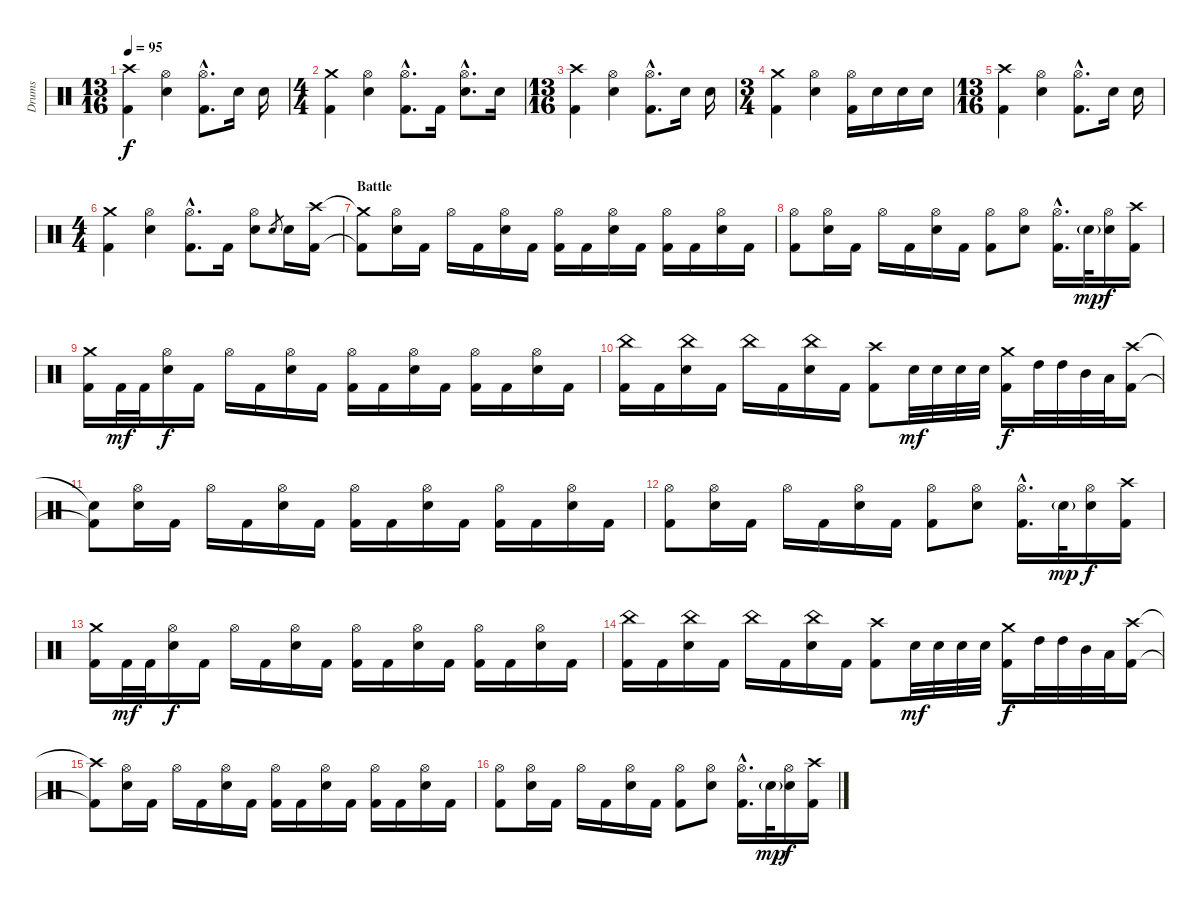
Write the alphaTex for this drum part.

\track ("Drums" "Drums") {instrument percussion}
\staff {score}
\articulation defaults
\ts (13 16)
\tempo 95
\clef neutral
\ks c
("Crash high (hit)" "Kick (hit) 2").4{dy f} ("Hi-Hat (open)" "Snare (hit) 2").4 ("Hi-Hat (open)"{hac} "Kick (hit) 2"{hac}).8{d} "Snare (hit) 2".16 "Snare (hit) 2".16 |
\ts (4 4)
("Crash medium (hit)" "Kick (hit) 2").4 ("Hi-Hat (open)" "Snare (hit) 2").4 ("Hi-Hat (open)"{hac} "Kick (hit) 2"{hac}).8{d} "Kick (hit) 2".16 ("Hi-Hat (open)"{hac} "Snare (hit) 2"{hac}).8{d} "Snare (hit) 2".16 |
\ts (13 16)
("Crash high (hit)" "Kick (hit) 2").4 ("Hi-Hat (open)" "Snare (hit) 2").4 ("Hi-Hat (open)"{hac} "Kick (hit) 2"{hac}).8{d} "Snare (hit) 2".16 "Snare (hit) 2".16 |
\ts (3 4)
("Crash medium (hit)" "Kick (hit) 2").4 ("Hi-Hat (open)" "Snare (hit) 2").4 ("Hi-Hat (open)" "Kick (hit) 2").16 "Snare (hit) 2".16 "Snare (hit) 2".16 "Snare (hit) 2".16 |
\ts (13 16)
("Crash high (hit)" "Kick (hit) 2").4 ("Hi-Hat (open)" "Snare (hit) 2").4 ("Hi-Hat (open)"{hac} "Kick (hit) 2"{hac}).8{d} "Snare (hit) 2".16 "Snare (hit) 2".16 |
\ts (4 4)
("Crash medium (hit)" "Kick (hit) 2").4 ("Hi-Hat (open)" "Snare (hit) 2").4 ("Hi-Hat (open)"{hac} "Kick (hit) 2"{hac}).8{d} "Kick (hit) 2".16 ("Hi-Hat (open)" "Snare (hit) 2").8 "Snare (hit) 2".8{gr} "Snare (hit) 2".16 ("Crash high (hit)" "Kick (hit) 2").16{volume 13} |
\section ("" "Battle")
("Crash medium (hit)"{t} "Kick (hit) 2"{t}).8 ("Hi-Hat (open)" "Snare (hit) 2").16 "Kick (hit) 2".16 "Hi-Hat (open)".16 "Kick (hit) 2".16 ("Hi-Hat (open)" "Snare (hit) 2").16 "Kick (hit) 2".16 ("Hi-Hat (open)" "Kick (hit) 2").16 "Kick (hit) 2".16 ("Hi-Hat (open)" "Snare (hit) 2").16 "Kick (hit) 2".16 ("Hi-Hat (open)" "Kick (hit) 2").16 "Kick (hit) 2".16 ("Hi-Hat (open)" "Snare (hit) 2").16 "Kick (hit) 2".16 |
("Hi-Hat (open)" "Kick (hit) 2").8 ("Hi-Hat (open)" "Snare (hit) 2").16 "Kick (hit) 2".16 "Hi-Hat (open)".16 "Kick (hit) 2".16 ("Hi-Hat (open)" "Snare (hit) 2").16 "Kick (hit) 2".16 ("Hi-Hat (open)" "Kick (hit) 2").8 ("Hi-Hat (open)" "Snare (hit) 2").8 ("Hi-Hat (open)"{hac} "Kick (hit) 2"{hac}).16{d} "Snare (hit) 2"{g}.32{dy mp} ("Hi-Hat (open)" "Snare (hit) 2").16{dy f} ("Crash high (hit)" "Kick (hit) 2").16 |
("Crash medium (hit)" "Kick (hit) 2").16 "Kick (hit) 2".32{dy mf} "Kick (hit) 2".32 ("Hi-Hat (open)" "Snare (hit) 2").16{dy f} "Kick (hit) 2".16 "Hi-Hat (open)".16 "Kick (hit) 2".16 ("Hi-Hat (open)" "Snare (hit) 2").16 "Kick (hit) 2".16 ("Hi-Hat (open)" "Kick (hit) 2").16 "Kick (hit) 2".16 ("Hi-Hat (open)" "Snare (hit) 2").16 "Kick (hit) 2".16 ("Hi-Hat (open)" "Kick (hit) 2").16 "Kick (hit) 2".16 ("Hi-Hat (open)" "Snare (hit) 2").16 "Kick (hit) 2".16 |
("China (hit)" "Kick (hit) 2").16 "Kick (hit) 2".16 ("China (hit)" "Snare (hit) 2").16 "Kick (hit) 2".16 "China (hit)".16 "Kick (hit) 2".16 ("China (hit)" "Snare (hit) 2").16 "Kick (hit) 2".16 ("Crash high (hit)" "Kick (hit) 2").8 "Snare (hit) 2".32{dy mf} "Snare (hit) 2".32 "Snare (hit) 2".32 "Snare (hit) 2".32 ("Crash medium (hit)" "Kick (hit) 2").16{dy f} "High Tom (hit)".32 "High Tom (hit)".32 "Mid Tom (hit)".32 "Low Tom (hit)".32 ("Crash high (hit)" "Kick (hit) 2").16 |
("Snare (hit)"{t} "Kick (hit) 2"{t}).8 ("Hi-Hat (open)" "Snare (hit) 2").16 "Kick (hit) 2".16 "Hi-Hat (open)".16 "Kick (hit) 2".16 ("Hi-Hat (open)" "Snare (hit) 2").16 "Kick (hit) 2".16 ("Hi-Hat (open)" "Kick (hit) 2").16 "Kick (hit) 2".16 ("Hi-Hat (open)" "Snare (hit) 2").16 "Kick (hit) 2".16 ("Hi-Hat (open)" "Kick (hit) 2").16 "Kick (hit) 2".16 ("Hi-Hat (open)" "Snare (hit) 2").16 "Kick (hit) 2".16 |
("Hi-Hat (open)" "Kick (hit) 2").8 ("Hi-Hat (open)" "Snare (hit) 2").16 "Kick (hit) 2".16 "Hi-Hat (open)".16 "Kick (hit) 2".16 ("Hi-Hat (open)" "Snare (hit) 2").16 "Kick (hit) 2".16 ("Hi-Hat (open)" "Kick (hit) 2").8 ("Hi-Hat (open)" "Snare (hit) 2").8 ("Hi-Hat (open)"{hac} "Kick (hit) 2"{hac}).16{d} "Snare (hit) 2"{g}.32{dy mp} ("Hi-Hat (open)" "Snare (hit) 2").16{dy f} ("Crash high (hit)" "Kick (hit) 2").16 |
("Crash medium (hit)" "Kick (hit) 2").16 "Kick (hit) 2".32{dy mf} "Kick (hit) 2".32 ("Hi-Hat (open)" "Snare (hit) 2").16{dy f} "Kick (hit) 2".16 "Hi-Hat (open)".16 "Kick (hit) 2".16 ("Hi-Hat (open)" "Snare (hit) 2").16 "Kick (hit) 2".16 ("Hi-Hat (open)" "Kick (hit) 2").16 "Kick (hit) 2".16 ("Hi-Hat (open)" "Snare (hit) 2").16 "Kick (hit) 2".16 ("Hi-Hat (open)" "Kick (hit) 2").16 "Kick (hit) 2".16 ("Hi-Hat (open)" "Snare (hit) 2").16 "Kick (hit) 2".16 |
("China (hit)" "Kick (hit) 2").16 "Kick (hit) 2".16 ("China (hit)" "Snare (hit) 2").16 "Kick (hit) 2".16 "China (hit)".16 "Kick (hit) 2".16 ("China (hit)" "Snare (hit) 2").16 "Kick (hit) 2".16 ("Crash high (hit)" "Kick (hit) 2").8 "Snare (hit) 2".32{dy mf} "Snare (hit) 2".32 "Snare (hit) 2".32 "Snare (hit) 2".32 ("Crash medium (hit)" "Kick (hit) 2").16{dy f} "High Tom (hit)".32 "High Tom (hit)".32 "Mid Tom (hit)".32 "Low Tom (hit)".32 ("Crash high (hit)" "Kick (hit) 2").16 |
("Crash high (hit)"{t} "Kick (hit) 2"{t}).8 ("Hi-Hat (open)" "Snare (hit) 2").16 "Kick (hit) 2".16 "Hi-Hat (open)".16 "Kick (hit) 2".16 ("Hi-Hat (open)" "Snare (hit) 2").16 "Kick (hit) 2".16 ("Hi-Hat (open)" "Kick (hit) 2").16 "Kick (hit) 2".16 ("Hi-Hat (open)" "Snare (hit) 2").16 "Kick (hit) 2".16 ("Hi-Hat (open)" "Kick (hit) 2").16 "Kick (hit) 2".16 ("Hi-Hat (open)" "Snare (hit) 2").16 "Kick (hit) 2".16 |
("Hi-Hat (open)" "Kick (hit) 2").8 ("Hi-Hat (open)" "Snare (hit) 2").16 "Kick (hit) 2".16 "Hi-Hat (open)".16 "Kick (hit) 2".16 ("Hi-Hat (open)" "Snare (hit) 2").16 "Kick (hit) 2".16 ("Hi-Hat (open)" "Kick (hit) 2").8 ("Hi-Hat (open)" "Snare (hit) 2").8 ("Hi-Hat (open)"{hac} "Kick (hit) 2"{hac}).16{d} "Snare (hit) 2"{g}.32{dy mp} ("Hi-Hat (open)" "Snare (hit) 2").16{dy f} ("Crash high (hit)" "Kick (hit) 2").16
